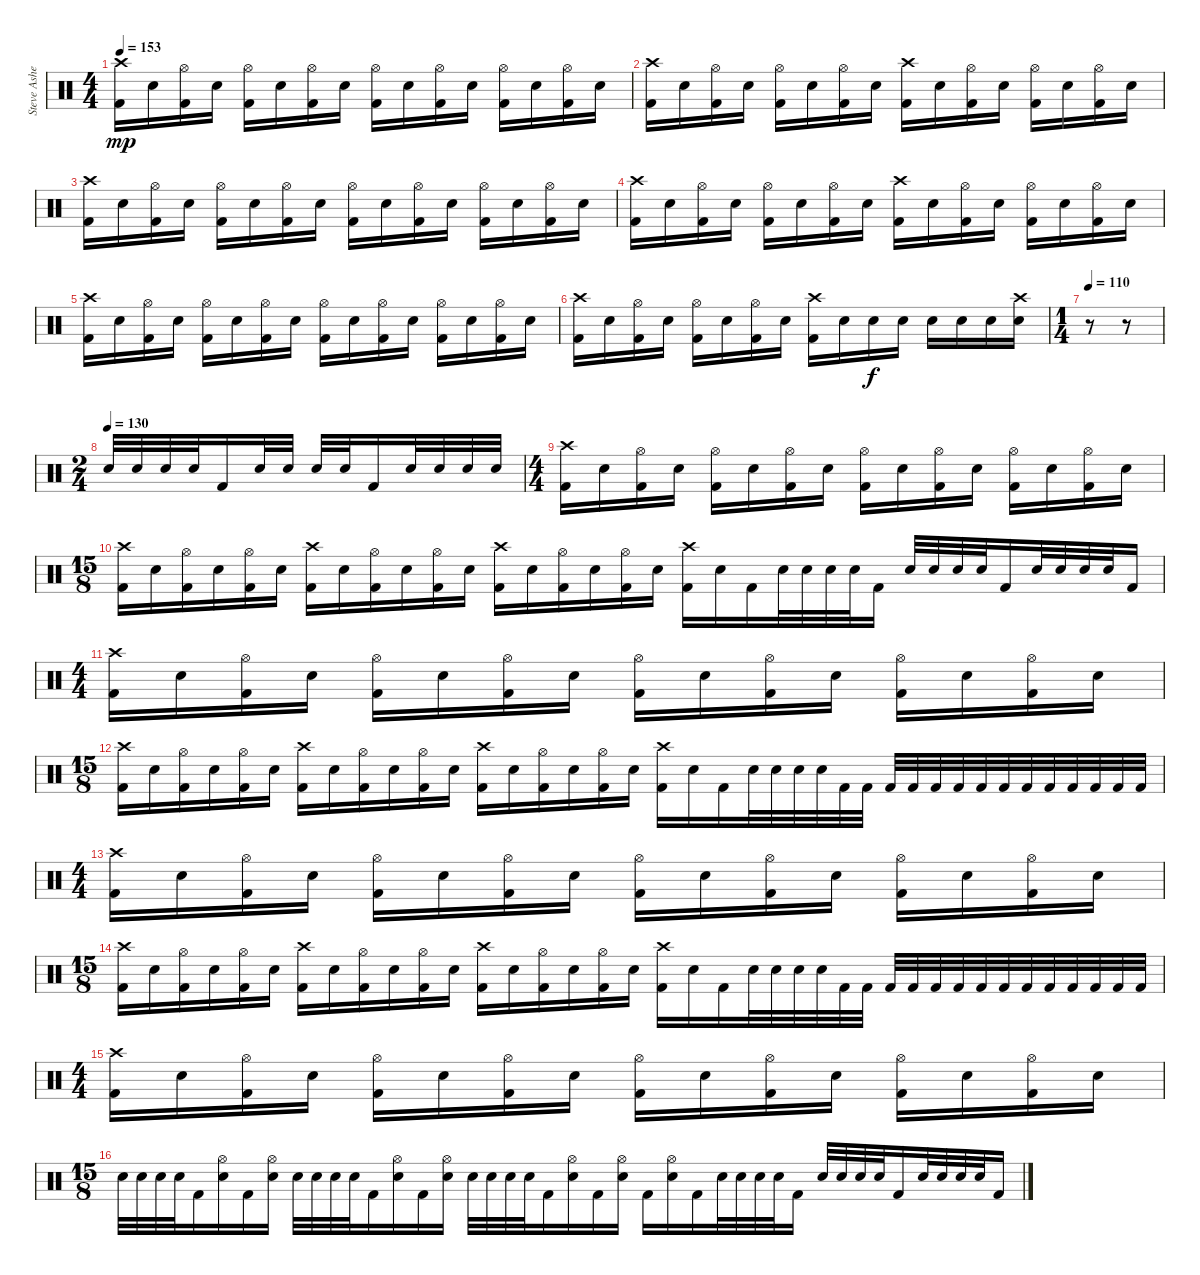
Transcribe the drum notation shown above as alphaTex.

\track ("Steve Asheim" "Steve Ashe") {instrument percussion}
\staff {score}
\articulation defaults
\ts (4 4)
\tempo 153
\clef neutral
\ks c
("Crash high (hit)" "Kick (hit) 2").16{dy mp} "Electric Snare (hit)".16 ("Hi-Hat (open)" "Kick (hit) 2").16 "Electric Snare (hit)".16 ("Hi-Hat (open)" "Kick (hit) 2").16 "Electric Snare (hit)".16 ("Hi-Hat (open)" "Kick (hit) 2").16 "Electric Snare (hit)".16 ("Hi-Hat (open)" "Kick (hit) 2").16 "Electric Snare (hit)".16 ("Hi-Hat (open)" "Kick (hit) 2").16 "Electric Snare (hit)".16 ("Hi-Hat (open)" "Kick (hit) 2").16 "Electric Snare (hit)".16 ("Hi-Hat (open)" "Kick (hit) 2").16 "Electric Snare (hit)".16 |
("Crash high (hit)" "Kick (hit) 2").16 "Electric Snare (hit)".16 ("Hi-Hat (open)" "Kick (hit) 2").16 "Electric Snare (hit)".16 ("Hi-Hat (open)" "Kick (hit) 2").16 "Electric Snare (hit)".16 ("Hi-Hat (open)" "Kick (hit) 2").16 "Electric Snare (hit)".16 ("Crash high (hit)" "Kick (hit) 2").16 "Electric Snare (hit)".16 ("Hi-Hat (open)" "Kick (hit) 2").16 "Electric Snare (hit)".16 ("Hi-Hat (open)" "Kick (hit) 2").16 "Electric Snare (hit)".16 ("Hi-Hat (open)" "Kick (hit) 2").16 "Electric Snare (hit)".16 |
("Crash high (hit)" "Kick (hit) 2").16 "Electric Snare (hit)".16 ("Hi-Hat (open)" "Kick (hit) 2").16 "Electric Snare (hit)".16 ("Hi-Hat (open)" "Kick (hit) 2").16 "Electric Snare (hit)".16 ("Hi-Hat (open)" "Kick (hit) 2").16 "Electric Snare (hit)".16 ("Hi-Hat (open)" "Kick (hit) 2").16 "Electric Snare (hit)".16 ("Hi-Hat (open)" "Kick (hit) 2").16 "Electric Snare (hit)".16 ("Hi-Hat (open)" "Kick (hit) 2").16 "Electric Snare (hit)".16 ("Hi-Hat (open)" "Kick (hit) 2").16 "Electric Snare (hit)".16 |
("Crash high (hit)" "Kick (hit) 2").16 "Electric Snare (hit)".16 ("Hi-Hat (open)" "Kick (hit) 2").16 "Electric Snare (hit)".16 ("Hi-Hat (open)" "Kick (hit) 2").16 "Electric Snare (hit)".16 ("Hi-Hat (open)" "Kick (hit) 2").16 "Electric Snare (hit)".16 ("Crash high (hit)" "Kick (hit) 2").16 "Electric Snare (hit)".16 ("Hi-Hat (open)" "Kick (hit) 2").16 "Electric Snare (hit)".16 ("Hi-Hat (open)" "Kick (hit) 2").16 "Electric Snare (hit)".16 ("Hi-Hat (open)" "Kick (hit) 2").16 "Electric Snare (hit)".16 |
("Crash high (hit)" "Kick (hit) 2").16 "Electric Snare (hit)".16 ("Hi-Hat (open)" "Kick (hit) 2").16 "Electric Snare (hit)".16 ("Hi-Hat (open)" "Kick (hit) 2").16 "Electric Snare (hit)".16 ("Hi-Hat (open)" "Kick (hit) 2").16 "Electric Snare (hit)".16 ("Hi-Hat (open)" "Kick (hit) 2").16 "Electric Snare (hit)".16 ("Hi-Hat (open)" "Kick (hit) 2").16 "Electric Snare (hit)".16 ("Hi-Hat (open)" "Kick (hit) 2").16 "Electric Snare (hit)".16 ("Hi-Hat (open)" "Kick (hit) 2").16 "Electric Snare (hit)".16 |
("Crash high (hit)" "Kick (hit) 2").16 "Electric Snare (hit)".16 ("Hi-Hat (open)" "Kick (hit) 2").16 "Electric Snare (hit)".16 ("Hi-Hat (open)" "Kick (hit) 2").16 "Electric Snare (hit)".16 ("Hi-Hat (open)" "Kick (hit) 2").16 "Electric Snare (hit)".16 ("Crash high (hit)" "Kick (hit) 2").16 "Electric Snare (hit)".16 "Electric Snare (hit)".16{dy f} "Electric Snare (hit)".16 "Electric Snare (hit)".16 "Electric Snare (hit)".16 "Electric Snare (hit)".16 ("Crash high (hit)" "Electric Snare (hit)").16 |
\ts (1 4)
\tempo 110
r.8 r.8 |
\ts (2 4)
\tempo (130)
"Electric Snare (hit)".32 "Electric Snare (hit)".32 "Electric Snare (hit)".32 "Electric Snare (hit)".32 "Kick (hit) 2".16 "Electric Snare (hit)".32 "Electric Snare (hit)".32 "Electric Snare (hit)".32 "Electric Snare (hit)".32 "Kick (hit) 2".16 "Electric Snare (hit)".32 "Electric Snare (hit)".32 "Electric Snare (hit)".32 "Electric Snare (hit)".32 |
\ts (4 4)
("Crash high (hit)" "Kick (hit) 2").16 "Electric Snare (hit)".16 ("Hi-Hat (open)" "Kick (hit) 2").16 "Electric Snare (hit)".16 ("Hi-Hat (open)" "Kick (hit) 2").16 "Electric Snare (hit)".16 ("Hi-Hat (open)" "Kick (hit) 2").16 "Electric Snare (hit)".16 ("Hi-Hat (open)" "Kick (hit) 2").16 "Electric Snare (hit)".16 ("Hi-Hat (open)" "Kick (hit) 2").16 "Electric Snare (hit)".16 ("Hi-Hat (open)" "Kick (hit) 2").16 "Electric Snare (hit)".16 ("Hi-Hat (open)" "Kick (hit) 2").16 "Electric Snare (hit)".16 |
\ts (15 8)
("Crash high (hit)" "Kick (hit) 2").16 "Electric Snare (hit)".16 ("Hi-Hat (open)" "Kick (hit) 2").16 "Electric Snare (hit)".16 ("Hi-Hat (open)" "Kick (hit) 2").16 "Electric Snare (hit)".16 ("Crash high (hit)" "Kick (hit) 2").16 "Electric Snare (hit)".16 ("Hi-Hat (open)" "Kick (hit) 2").16 "Electric Snare (hit)".16 ("Hi-Hat (open)" "Kick (hit) 2").16 "Electric Snare (hit)".16 ("Crash high (hit)" "Kick (hit) 2").16 "Electric Snare (hit)".16 ("Hi-Hat (open)" "Kick (hit) 2").16 "Electric Snare (hit)".16 ("Hi-Hat (open)" "Kick (hit) 2").16 "Electric Snare (hit)".16 ("Crash high (hit)" "Kick (hit) 2").16 "Electric Snare (hit)".16 "Kick (hit) 2".16 "Electric Snare (hit)".32 "Electric Snare (hit)".32 "Electric Snare (hit)".32 "Electric Snare (hit)".32 "Kick (hit) 2".16 "Electric Snare (hit)".32 "Electric Snare (hit)".32 "Electric Snare (hit)".32 "Electric Snare (hit)".32 "Kick (hit) 2".16 "Electric Snare (hit)".32 "Electric Snare (hit)".32 "Electric Snare (hit)".32 "Electric Snare (hit)".32 "Kick (hit) 2".16 |
\ts (4 4)
("Crash high (hit)" "Kick (hit) 2").16 "Electric Snare (hit)".16 ("Hi-Hat (open)" "Kick (hit) 2").16 "Electric Snare (hit)".16 ("Hi-Hat (open)" "Kick (hit) 2").16 "Electric Snare (hit)".16 ("Hi-Hat (open)" "Kick (hit) 2").16 "Electric Snare (hit)".16 ("Hi-Hat (open)" "Kick (hit) 2").16 "Electric Snare (hit)".16 ("Hi-Hat (open)" "Kick (hit) 2").16 "Electric Snare (hit)".16 ("Hi-Hat (open)" "Kick (hit) 2").16 "Electric Snare (hit)".16 ("Hi-Hat (open)" "Kick (hit) 2").16 "Electric Snare (hit)".16 |
\ts (15 8)
("Crash high (hit)" "Kick (hit) 2").16 "Electric Snare (hit)".16 ("Hi-Hat (open)" "Kick (hit) 2").16 "Electric Snare (hit)".16 ("Hi-Hat (open)" "Kick (hit) 2").16 "Electric Snare (hit)".16 ("Crash high (hit)" "Kick (hit) 2").16 "Electric Snare (hit)".16 ("Hi-Hat (open)" "Kick (hit) 2").16 "Electric Snare (hit)".16 ("Hi-Hat (open)" "Kick (hit) 2").16 "Electric Snare (hit)".16 ("Crash high (hit)" "Kick (hit) 2").16 "Electric Snare (hit)".16 ("Hi-Hat (open)" "Kick (hit) 2").16 "Electric Snare (hit)".16 ("Hi-Hat (open)" "Kick (hit) 2").16 "Electric Snare (hit)".16 ("Crash high (hit)" "Kick (hit) 2").16 "Electric Snare (hit)".16 "Kick (hit) 2".16 "Electric Snare (hit)".32 "Electric Snare (hit)".32 "Electric Snare (hit)".32 "Electric Snare (hit)".32 "Kick (hit) 2".32 "Kick (hit) 2".32 "Kick (hit) 2".32 "Kick (hit) 2".32 "Kick (hit) 2".32 "Kick (hit) 2".32 "Kick (hit) 2".32 "Kick (hit) 2".32 "Kick (hit) 2".32 "Kick (hit) 2".32 "Kick (hit) 2".32 "Kick (hit) 2".32 "Kick (hit) 2".32 "Kick (hit) 2".32 |
\ts (4 4)
("Crash high (hit)" "Kick (hit) 2").16 "Electric Snare (hit)".16 ("Hi-Hat (open)" "Kick (hit) 2").16 "Electric Snare (hit)".16 ("Hi-Hat (open)" "Kick (hit) 2").16 "Electric Snare (hit)".16 ("Hi-Hat (open)" "Kick (hit) 2").16 "Electric Snare (hit)".16 ("Hi-Hat (open)" "Kick (hit) 2").16 "Electric Snare (hit)".16 ("Hi-Hat (open)" "Kick (hit) 2").16 "Electric Snare (hit)".16 ("Hi-Hat (open)" "Kick (hit) 2").16 "Electric Snare (hit)".16 ("Hi-Hat (open)" "Kick (hit) 2").16 "Electric Snare (hit)".16 |
\ts (15 8)
("Crash high (hit)" "Kick (hit) 2").16 "Electric Snare (hit)".16 ("Hi-Hat (open)" "Kick (hit) 2").16 "Electric Snare (hit)".16 ("Hi-Hat (open)" "Kick (hit) 2").16 "Electric Snare (hit)".16 ("Crash high (hit)" "Kick (hit) 2").16 "Electric Snare (hit)".16 ("Hi-Hat (open)" "Kick (hit) 2").16 "Electric Snare (hit)".16 ("Hi-Hat (open)" "Kick (hit) 2").16 "Electric Snare (hit)".16 ("Crash high (hit)" "Kick (hit) 2").16 "Electric Snare (hit)".16 ("Hi-Hat (open)" "Kick (hit) 2").16 "Electric Snare (hit)".16 ("Hi-Hat (open)" "Kick (hit) 2").16 "Electric Snare (hit)".16 ("Crash high (hit)" "Kick (hit) 2").16 "Electric Snare (hit)".16 "Kick (hit) 2".16 "Electric Snare (hit)".32 "Electric Snare (hit)".32 "Electric Snare (hit)".32 "Electric Snare (hit)".32 "Kick (hit) 2".32 "Kick (hit) 2".32 "Kick (hit) 2".32 "Kick (hit) 2".32 "Kick (hit) 2".32 "Kick (hit) 2".32 "Kick (hit) 2".32 "Kick (hit) 2".32 "Kick (hit) 2".32 "Kick (hit) 2".32 "Kick (hit) 2".32 "Kick (hit) 2".32 "Kick (hit) 2".32 "Kick (hit) 2".32 |
\ts (4 4)
("Crash high (hit)" "Kick (hit) 2").16 "Electric Snare (hit)".16 ("Hi-Hat (open)" "Kick (hit) 2").16 "Electric Snare (hit)".16 ("Hi-Hat (open)" "Kick (hit) 2").16 "Electric Snare (hit)".16 ("Hi-Hat (open)" "Kick (hit) 2").16 "Electric Snare (hit)".16 ("Hi-Hat (open)" "Kick (hit) 2").16 "Electric Snare (hit)".16 ("Hi-Hat (open)" "Kick (hit) 2").16 "Electric Snare (hit)".16 ("Hi-Hat (open)" "Kick (hit) 2").16 "Electric Snare (hit)".16 ("Hi-Hat (open)" "Kick (hit) 2").16 "Electric Snare (hit)".16 |
\ts (15 8)
"Electric Snare (hit)".32 "Electric Snare (hit)".32 "Electric Snare (hit)".32 "Electric Snare (hit)".32 "Kick (hit) 2".16 ("Hi-Hat (open)" "Electric Snare (hit)").16 "Kick (hit) 2".16 ("Hi-Hat (open)" "Electric Snare (hit)").16 "Electric Snare (hit)".32 "Electric Snare (hit)".32 "Electric Snare (hit)".32 "Electric Snare (hit)".32 "Kick (hit) 2".16 ("Hi-Hat (open)" "Electric Snare (hit)").16 "Kick (hit) 2".16 ("Hi-Hat (open)" "Electric Snare (hit)").16 "Electric Snare (hit)".32 "Electric Snare (hit)".32 "Electric Snare (hit)".32 "Electric Snare (hit)".32 "Kick (hit) 2".16 ("Hi-Hat (open)" "Electric Snare (hit)").16 "Kick (hit) 2".16 ("Hi-Hat (open)" "Electric Snare (hit)").16 "Kick (hit) 2".16 ("Hi-Hat (open)" "Electric Snare (hit)").16 "Kick (hit) 2".16 "Electric Snare (hit)".32 "Electric Snare (hit)".32 "Electric Snare (hit)".32 "Electric Snare (hit)".32 "Kick (hit) 2".16 "Electric Snare (hit)".32 "Electric Snare (hit)".32 "Electric Snare (hit)".32 "Electric Snare (hit)".32 "Kick (hit) 2".16 "Electric Snare (hit)".32 "Electric Snare (hit)".32 "Electric Snare (hit)".32 "Electric Snare (hit)".32 "Kick (hit) 2".16
